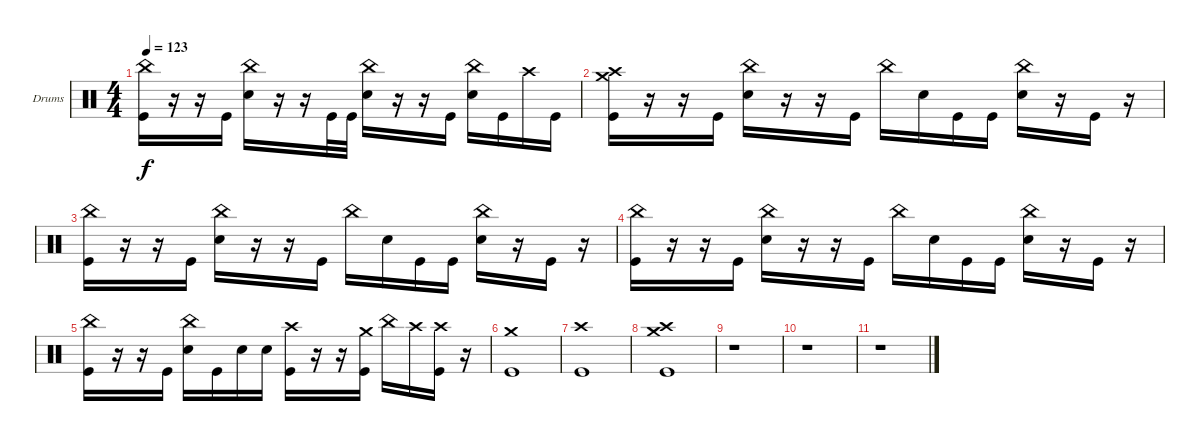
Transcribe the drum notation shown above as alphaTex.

\bracketExtendMode groupsimilarinstruments
\firstSystemTrackNameOrientation horizontal
\otherSystemsTrackNameOrientation horizontal
\track ("Drumkit" "Drums") {instrument percussion}
\staff {score}
\articulation defaults
\ts (4 4)
\tempo 123
\clef neutral
\ks c
("China (hit)" "Kick (hit)").16{dy f} r.16 r.16 "Kick (hit)".16 ("China (hit)" "Snare (hit) 2").16 r.16 r.16 "Kick (hit)".32 "Kick (hit)".32 ("China (hit)" "Snare (hit) 2").16 r.16 r.16 "Kick (hit)".16 ("China (hit)" "Snare (hit) 2").16 "Kick (hit)".16 "Crash high (hit)".16 "Kick (hit)".16 |
("Crash medium (hit)" "Crash high (hit)" "Kick (hit)").16 r.16 r.16 "Kick (hit)".16 ("China (hit)" "Snare (hit) 2").16 r.16 r.16 "Kick (hit)".16 "China (hit)".16 "Snare (hit) 2".16 "Kick (hit)".16 "Kick (hit)".16 ("China (hit)" "Snare (hit) 2").16 r.16 "Kick (hit)".16 r.16 |
("China (hit)" "Kick (hit)").16 r.16 r.16 "Kick (hit)".16 ("China (hit)" "Snare (hit) 2").16 r.16 r.16 "Kick (hit)".16 "China (hit)".16 "Snare (hit) 2".16 "Kick (hit)".16 "Kick (hit)".16 ("China (hit)" "Snare (hit) 2").16 r.16 "Kick (hit)".16 r.16 |
("China (hit)" "Kick (hit)").16 r.16 r.16 "Kick (hit)".16 ("China (hit)" "Snare (hit) 2").16 r.16 r.16 "Kick (hit)".16 "China (hit)".16 "Snare (hit) 2".16 "Kick (hit)".16 "Kick (hit)".16 ("China (hit)" "Snare (hit) 2").16 r.16 "Kick (hit)".16 r.16 |
("China (hit)" "Kick (hit)").16 r.16 r.16 "Kick (hit)".16 ("China (hit)" "Snare (hit) 2").16 "Kick (hit)".16 "Snare (hit) 2".16 "Snare (hit) 2".16 ("Crash high (hit)" "Kick (hit)").16 r.16 r.16 ("Crash medium (hit)" "Kick (hit)").16 "China (hit)".16 "Crash high (hit)".16 ("Crash high (hit)" "Kick (hit)").16 r.16 |
("Crash medium (hit)" "Kick (hit)").1 |
("Crash high (hit)" "Kick (hit)").1 |
("Crash medium (hit)" "Crash high (hit)" "Kick (hit)").1 |
r.1 |
r.1 |
r.1
